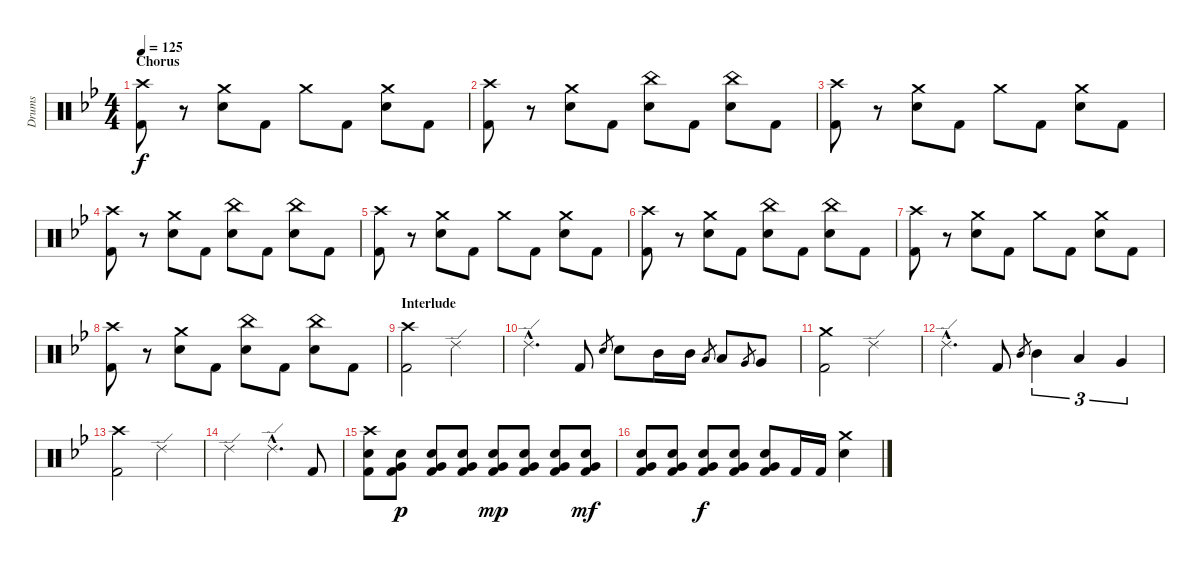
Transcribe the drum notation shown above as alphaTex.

\track ("Drums" "Drums") {instrument percussion}
\staff {score}
\articulation defaults
\ts (4 4)
\section ("" "Chorus")
\tempo 125
\clef neutral
\ks gminor
("Crash high (hit)" "Kick (hit) 2").8{dy f} r.8 ("Crash medium (hit)" "Snare (hit) 2").8 "Kick (hit) 2".8 "Crash medium (hit)".8 "Kick (hit) 2".8 ("Crash medium (hit)" "Snare (hit) 2").8 "Kick (hit) 2".8 |
("Crash high (hit)" "Kick (hit) 2").8 r.8 ("Crash medium (hit)" "Snare (hit) 2").8 "Kick (hit) 2".8 ("China (hit)" "Snare (hit) 2").8 "Kick (hit) 2".8 ("China (hit)" "Snare (hit) 2").8 "Kick (hit) 2".8 |
("Crash high (hit)" "Kick (hit) 2").8 r.8 ("Crash medium (hit)" "Snare (hit) 2").8 "Kick (hit) 2".8 "Crash medium (hit)".8 "Kick (hit) 2".8 ("Crash medium (hit)" "Snare (hit) 2").8 "Kick (hit) 2".8 |
("Crash high (hit)" "Kick (hit) 2").8 r.8 ("Crash medium (hit)" "Snare (hit) 2").8 "Kick (hit) 2".8 ("China (hit)" "Snare (hit) 2").8 "Kick (hit) 2".8 ("China (hit)" "Snare (hit) 2").8 "Kick (hit) 2".8 |
("Crash high (hit)" "Kick (hit) 2").8 r.8 ("Crash medium (hit)" "Snare (hit) 2").8 "Kick (hit) 2".8 "Crash medium (hit)".8 "Kick (hit) 2".8 ("Crash medium (hit)" "Snare (hit) 2").8 "Kick (hit) 2".8 |
("Crash high (hit)" "Kick (hit) 2").8 r.8 ("Crash medium (hit)" "Snare (hit) 2").8 "Kick (hit) 2".8 ("China (hit)" "Snare (hit) 2").8 "Kick (hit) 2".8 ("China (hit)" "Snare (hit) 2").8 "Kick (hit) 2".8 |
("Crash high (hit)" "Kick (hit) 2").8 r.8 ("Crash medium (hit)" "Snare (hit) 2").8 "Kick (hit) 2".8 "Crash medium (hit)".8 "Kick (hit) 2".8 ("Crash medium (hit)" "Snare (hit) 2").8 "Kick (hit) 2".8 |
("Crash high (hit)" "Kick (hit) 2").8 r.8 ("Crash medium (hit)" "Snare (hit) 2").8 "Kick (hit) 2".8 ("China (hit)" "Snare (hit) 2").8 "Kick (hit) 2".8 ("China (hit)" "Snare (hit) 2").8 "Kick (hit) 2".8 |
\section ("" "Interlude")
("Crash high (hit)" "Kick (hit) 2").2 "Ride (edge) 2".2 |
"Ride (edge) 2"{hac}.4{d} "Kick (hit) 2".8 "Snare (hit) 2".8{gr} "Snare (hit) 2".8 "Mid Tom (hit)".16 "Mid Tom (hit)".16 "Low Tom (hit)".8{gr} "Low Tom (hit)".8 "Very Low Tom (hit)".8{gr} "Very Low Tom (hit)".8 |
("Crash medium (hit)" "Kick (hit) 2").2 "Ride (edge) 2".2 |
"Ride (edge) 2"{hac}.4{d} "Kick (hit) 2".8 "Mid Tom (hit)".8{gr} "Mid Tom (hit)".4{tu (3 2)} "Low Tom (hit)".4{tu (3 2)} "Very Low Tom (hit)".4{tu (3 2)} |
("Crash high (hit)" "Kick (hit) 2").2 "Ride (edge) 2".2 |
"Ride (edge) 2".2 "Ride (edge) 2"{hac}.4{d} "Kick (hit) 2".8 |
("Crash high (hit)" "Snare (hit) 2" "Kick (hit) 2").8 ("Very Low Tom (hit)" "Snare (hit) 2" "Kick (hit) 2").8{dy p} ("Very Low Tom (hit)" "Snare (hit) 2" "Kick (hit) 2").8 ("Very Low Tom (hit)" "Snare (hit) 2" "Kick (hit) 2").8 ("Very Low Tom (hit)" "Snare (hit) 2" "Kick (hit) 2").8{dy mp} ("Very Low Tom (hit)" "Snare (hit) 2" "Kick (hit) 2").8 ("Very Low Tom (hit)" "Snare (hit) 2" "Kick (hit) 2").8 ("Very Low Tom (hit)" "Snare (hit) 2" "Kick (hit) 2").8{dy mf} |
("Very Low Tom (hit)" "Snare (hit) 2" "Kick (hit) 2").8 ("Very Low Tom (hit)" "Snare (hit) 2" "Kick (hit) 2").8 ("Very Low Tom (hit)" "Snare (hit) 2" "Kick (hit) 2").8{dy f} ("Very Low Tom (hit)" "Snare (hit) 2" "Kick (hit) 2").8 ("Very Low Tom (hit)" "Snare (hit) 2" "Kick (hit) 2").8 "Kick (hit) 2".16 "Kick (hit) 2".16 ("Crash medium (hit)" "Snare (hit) 2").4
